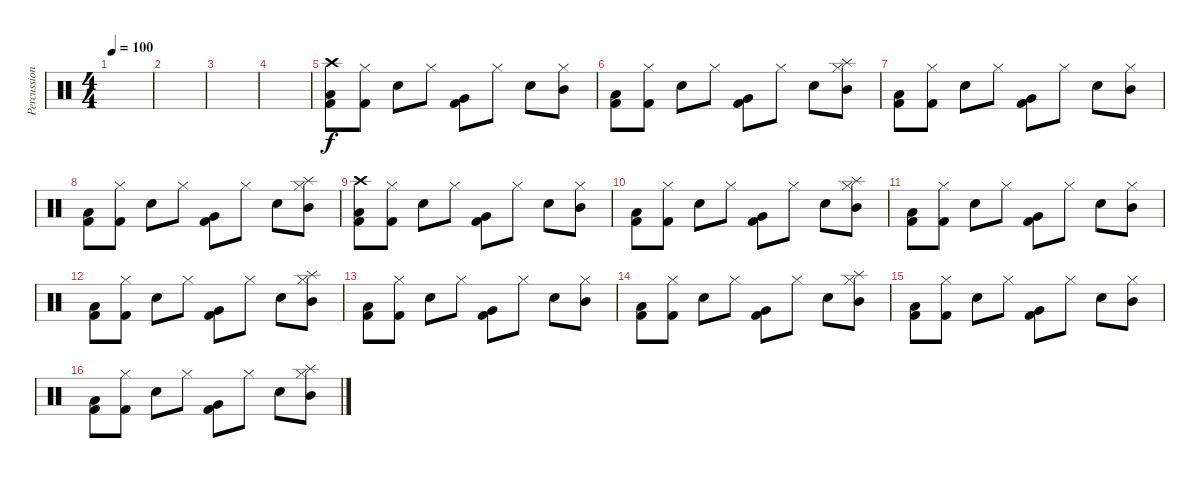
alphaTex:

\track ("Percussion" "Percussion") {instrument percussion}
\staff {score}
\articulation defaults
\ts (4 4)
\tempo 100
\clef neutral
\ks c
|
|
|
|
("Kick (hit) 2" "Low Tom (hit)" "Crash high (hit)").8 ("Kick (hit) 2" "Hi-Hat (closed)").8 "Electric Snare (hit)".8 "Hi-Hat (closed)".8 ("Kick (hit) 2" "Very Low Tom (hit)").8 "Hi-Hat (closed)".8 "Electric Snare (hit)".8 ("Mid Tom (hit)" "Hi-Hat (closed)").8 |
("Kick (hit) 2" "Low Tom (hit)").8 ("Kick (hit) 2" "Hi-Hat (closed)").8 "Electric Snare (hit)".8 "Hi-Hat (closed)".8 ("Kick (hit) 2" "Very Low Tom (hit)").8 "Hi-Hat (closed)".8 "Electric Snare (hit)".8 ("Mid Tom (hit)" "Hi-Hat (closed)" "Splash (hit)").8 |
("Kick (hit) 2" "Low Tom (hit)").8 ("Kick (hit) 2" "Hi-Hat (closed)").8 "Electric Snare (hit)".8 "Hi-Hat (closed)".8 ("Kick (hit) 2" "Very Low Tom (hit)").8 "Hi-Hat (closed)".8 "Electric Snare (hit)".8 ("Mid Tom (hit)" "Hi-Hat (closed)").8 |
("Kick (hit) 2" "Low Tom (hit)").8 ("Kick (hit) 2" "Hi-Hat (closed)").8 "Electric Snare (hit)".8 "Hi-Hat (closed)".8 ("Kick (hit) 2" "Very Low Tom (hit)").8 "Hi-Hat (closed)".8 "Electric Snare (hit)".8 ("Mid Tom (hit)" "Hi-Hat (closed)" "Splash (hit)").8 |
("Kick (hit) 2" "Low Tom (hit)" "Crash high (hit)").8 ("Kick (hit) 2" "Hi-Hat (closed)").8 "Electric Snare (hit)".8 "Hi-Hat (closed)".8 ("Kick (hit) 2" "Very Low Tom (hit)").8 "Hi-Hat (closed)".8 "Electric Snare (hit)".8 ("Mid Tom (hit)" "Hi-Hat (closed)").8 |
("Kick (hit) 2" "Low Tom (hit)").8 ("Kick (hit) 2" "Hi-Hat (closed)").8 "Electric Snare (hit)".8 "Hi-Hat (closed)".8 ("Kick (hit) 2" "Very Low Tom (hit)").8 "Hi-Hat (closed)".8 "Electric Snare (hit)".8 ("Mid Tom (hit)" "Hi-Hat (closed)" "Splash (hit)").8 |
("Kick (hit) 2" "Low Tom (hit)").8 ("Kick (hit) 2" "Hi-Hat (closed)").8 "Electric Snare (hit)".8 "Hi-Hat (closed)".8 ("Kick (hit) 2" "Very Low Tom (hit)").8 "Hi-Hat (closed)".8 "Electric Snare (hit)".8 ("Mid Tom (hit)" "Hi-Hat (closed)").8 |
("Kick (hit) 2" "Low Tom (hit)").8 ("Kick (hit) 2" "Hi-Hat (closed)").8 "Electric Snare (hit)".8 "Hi-Hat (closed)".8 ("Kick (hit) 2" "Very Low Tom (hit)").8 "Hi-Hat (closed)".8 "Electric Snare (hit)".8 ("Mid Tom (hit)" "Hi-Hat (closed)" "Splash (hit)").8 |
("Kick (hit) 2" "Low Tom (hit)").8 ("Kick (hit) 2" "Hi-Hat (closed)").8 "Electric Snare (hit)".8 "Hi-Hat (closed)".8 ("Kick (hit) 2" "Very Low Tom (hit)").8 "Hi-Hat (closed)".8 "Electric Snare (hit)".8 ("Mid Tom (hit)" "Hi-Hat (closed)").8 |
("Kick (hit) 2" "Low Tom (hit)").8 ("Kick (hit) 2" "Hi-Hat (closed)").8 "Electric Snare (hit)".8 "Hi-Hat (closed)".8 ("Kick (hit) 2" "Very Low Tom (hit)").8 "Hi-Hat (closed)".8 "Electric Snare (hit)".8 ("Mid Tom (hit)" "Hi-Hat (closed)" "Splash (hit)").8 |
("Kick (hit) 2" "Low Tom (hit)").8 ("Kick (hit) 2" "Hi-Hat (closed)").8 "Electric Snare (hit)".8 "Hi-Hat (closed)".8 ("Kick (hit) 2" "Very Low Tom (hit)").8 "Hi-Hat (closed)".8 "Electric Snare (hit)".8 ("Mid Tom (hit)" "Hi-Hat (closed)").8 |
("Kick (hit) 2" "Low Tom (hit)").8 ("Kick (hit) 2" "Hi-Hat (closed)").8 "Electric Snare (hit)".8 "Hi-Hat (closed)".8 ("Kick (hit) 2" "Very Low Tom (hit)").8 "Hi-Hat (closed)".8 "Electric Snare (hit)".8 ("Mid Tom (hit)" "Hi-Hat (closed)" "Splash (hit)").8
